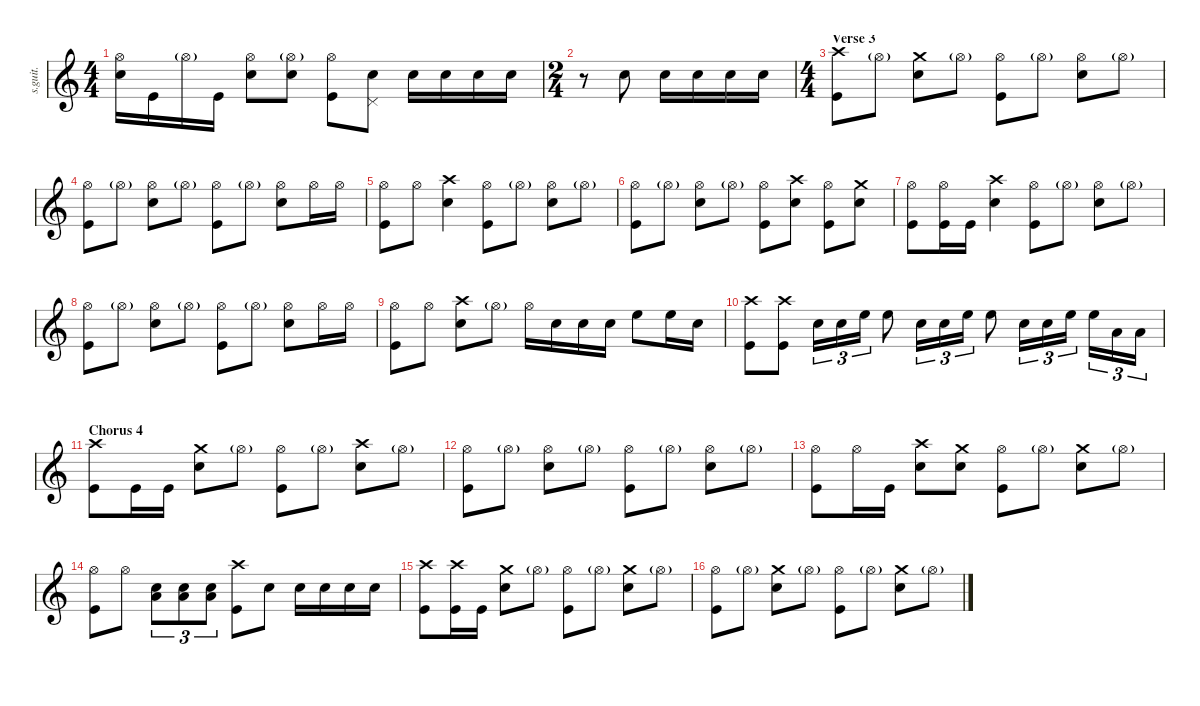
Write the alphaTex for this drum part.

\defaultSystemsLayout 4
\hideDynamics
\bracketExtendMode nobrackets
\track ("Lars Ulrich" "s.guit.") {instrument percussion}
\staff {score}
\articulation defaults
\ts (4 4)
\tempo (89 hide)
\clef g2
\ks c
("Hi-Hat (open)" "Snare (hit) 2").16{lyrics (0 "") lyrics (1 "") lyrics (2 "") lyrics (3 "") lyrics (4 "") dy f} "Kick (hit)".16{lyrics (0 "") lyrics (1 "") lyrics (2 "") lyrics (3 "") lyrics (4 "") dy fff} "Hi-Hat (open)"{g}.16{lyrics (0 "") lyrics (1 "") lyrics (2 "") lyrics (3 "") lyrics (4 "") dy p} "Kick (hit)".16{lyrics (0 "") lyrics (1 "") lyrics (2 "") lyrics (3 "") lyrics (4 "") dy fff} ("Hi-Hat (open)" "Snare (hit) 2").8{lyrics (0 "") lyrics (1 "") lyrics (2 "") lyrics (3 "") lyrics (4 "") dy f} ("Hi-Hat (open)"{g} "Snare (hit) 2").8{lyrics (0 "") lyrics (1 "") lyrics (2 "") lyrics (3 "") lyrics (4 "")} ("Hi-Hat (open)" "Kick (hit)").8{lyrics (0 "") lyrics (1 "") lyrics (2 "") lyrics (3 "") lyrics (4 "")} ("Pedal Hi-Hat (hit)" "Snare (hit) 2").8{lyrics (0 "") lyrics (1 "") lyrics (2 "") lyrics (3 "") lyrics (4 "")} "Snare (hit) 2".16{lyrics (0 "") lyrics (1 "") lyrics (2 "") lyrics (3 "") lyrics (4 "")} "Snare (hit) 2".16{lyrics (0 "") lyrics (1 "") lyrics (2 "") lyrics (3 "") lyrics (4 "")} "Snare (hit) 2".16{lyrics (0 "") lyrics (1 "") lyrics (2 "") lyrics (3 "") lyrics (4 "")} "Snare (hit) 2".16{lyrics (0 "") lyrics (1 "") lyrics (2 "") lyrics (3 "") lyrics (4 "")} |
\ts (2 4)
\beaming (8 2 2 2 2)
\tempo (90 hide)
r.8 "Snare (hit) 2".8{lyrics (0 "") lyrics (1 "") lyrics (2 "") lyrics (3 "") lyrics (4 "")} "Snare (hit) 2".16{lyrics (0 "") lyrics (1 "") lyrics (2 "") lyrics (3 "") lyrics (4 "")} "Snare (hit) 2".16{lyrics (0 "") lyrics (1 "") lyrics (2 "") lyrics (3 "") lyrics (4 "")} "Snare (hit) 2".16{lyrics (0 "") lyrics (1 "") lyrics (2 "") lyrics (3 "") lyrics (4 "")} "Snare (hit) 2".16{lyrics (0 "") lyrics (1 "") lyrics (2 "") lyrics (3 "") lyrics (4 "")} |
\ts (4 4)
\beaming (8 2 2 2 2)
\section ("" "Verse 3")
\tempo (89 hide)
("Crash high (hit)" "Kick (hit)").8{lyrics (0 "") lyrics (1 "") lyrics (2 "") lyrics (3 "") lyrics (4 "")} "Hi-Hat (open)"{g}.8{lyrics (0 "") lyrics (1 "") lyrics (2 "") lyrics (3 "") lyrics (4 "") dy p} ("Crash medium (hit)" "Snare (hit) 2").8{lyrics (0 "") lyrics (1 "") lyrics (2 "") lyrics (3 "") lyrics (4 "") dy f} "Hi-Hat (open)"{g}.8{lyrics (0 "") lyrics (1 "") lyrics (2 "") lyrics (3 "") lyrics (4 "") dy p} ("Hi-Hat (open)" "Kick (hit)").8{lyrics (0 "") lyrics (1 "") lyrics (2 "") lyrics (3 "") lyrics (4 "") dy f} "Hi-Hat (open)"{g}.8{lyrics (0 "") lyrics (1 "") lyrics (2 "") lyrics (3 "") lyrics (4 "") dy p} ("Hi-Hat (open)" "Snare (hit) 2").8{lyrics (0 "") lyrics (1 "") lyrics (2 "") lyrics (3 "") lyrics (4 "") dy f} "Hi-Hat (open)"{g}.8{lyrics (0 "") lyrics (1 "") lyrics (2 "") lyrics (3 "") lyrics (4 "") dy p} |
\tempo (90 hide)
("Hi-Hat (open)" "Kick (hit)").8{lyrics (0 "") lyrics (1 "") lyrics (2 "") lyrics (3 "") lyrics (4 "") dy f} "Hi-Hat (open)"{g}.8{lyrics (0 "") lyrics (1 "") lyrics (2 "") lyrics (3 "") lyrics (4 "") dy p} ("Hi-Hat (open)" "Snare (hit) 2").8{lyrics (0 "") lyrics (1 "") lyrics (2 "") lyrics (3 "") lyrics (4 "") dy f} "Hi-Hat (open)"{g}.8{lyrics (0 "") lyrics (1 "") lyrics (2 "") lyrics (3 "") lyrics (4 "") dy p} ("Hi-Hat (open)" "Kick (hit)").8{lyrics (0 "") lyrics (1 "") lyrics (2 "") lyrics (3 "") lyrics (4 "") dy f} "Hi-Hat (open)"{g}.8{lyrics (0 "") lyrics (1 "") lyrics (2 "") lyrics (3 "") lyrics (4 "") dy p} ("Hi-Hat (open)" "Snare (hit) 2").8{lyrics (0 "") lyrics (1 "") lyrics (2 "") lyrics (3 "") lyrics (4 "") dy f} "Hi-Hat (open)".16{lyrics (0 "") lyrics (1 "") lyrics (2 "") lyrics (3 "") lyrics (4 "")} "Hi-Hat (open)".16{lyrics (0 "") lyrics (1 "") lyrics (2 "") lyrics (3 "") lyrics (4 "")} |
\tempo (89 hide)
("Hi-Hat (open)" "Kick (hit)").8{lyrics (0 "") lyrics (1 "") lyrics (2 "") lyrics (3 "") lyrics (4 "")} "Hi-Hat (open)".8{lyrics (0 "") lyrics (1 "") lyrics (2 "") lyrics (3 "") lyrics (4 "")} ("Crash high (hit)" "Snare (hit) 2").4{lyrics (0 "") lyrics (1 "") lyrics (2 "") lyrics (3 "") lyrics (4 "")} ("Hi-Hat (open)" "Kick (hit)").8{lyrics (0 "") lyrics (1 "") lyrics (2 "") lyrics (3 "") lyrics (4 "")} "Hi-Hat (open)"{g}.8{lyrics (0 "") lyrics (1 "") lyrics (2 "") lyrics (3 "") lyrics (4 "") dy p} ("Hi-Hat (open)" "Snare (hit) 2").8{lyrics (0 "") lyrics (1 "") lyrics (2 "") lyrics (3 "") lyrics (4 "") dy f} "Hi-Hat (open)"{g}.8{lyrics (0 "") lyrics (1 "") lyrics (2 "") lyrics (3 "") lyrics (4 "") dy p} |
("Hi-Hat (open)" "Kick (hit)").8{lyrics (0 "") lyrics (1 "") lyrics (2 "") lyrics (3 "") lyrics (4 "") dy f} "Hi-Hat (open)"{g}.8{lyrics (0 "") lyrics (1 "") lyrics (2 "") lyrics (3 "") lyrics (4 "") dy p} ("Hi-Hat (open)" "Snare (hit) 2").8{lyrics (0 "") lyrics (1 "") lyrics (2 "") lyrics (3 "") lyrics (4 "") dy f} "Hi-Hat (open)"{g}.8{lyrics (0 "") lyrics (1 "") lyrics (2 "") lyrics (3 "") lyrics (4 "") dy p} ("Hi-Hat (open)" "Kick (hit)").8{lyrics (0 "") lyrics (1 "") lyrics (2 "") lyrics (3 "") lyrics (4 "") dy f} ("Crash high (hit)" "Snare (hit) 2").8{lyrics (0 "") lyrics (1 "") lyrics (2 "") lyrics (3 "") lyrics (4 "")} ("Hi-Hat (open)" "Kick (hit)").8{lyrics (0 "") lyrics (1 "") lyrics (2 "") lyrics (3 "") lyrics (4 "")} ("Crash medium (hit)" "Snare (hit) 2").8{lyrics (0 "") lyrics (1 "") lyrics (2 "") lyrics (3 "") lyrics (4 "")} |
\tempo (90 hide)
("Hi-Hat (open)" "Kick (hit)").8{lyrics (0 "") lyrics (1 "") lyrics (2 "") lyrics (3 "") lyrics (4 "")} ("Hi-Hat (open)" "Kick (hit)").16{lyrics (0 "") lyrics (1 "") lyrics (2 "") lyrics (3 "") lyrics (4 "")} "Kick (hit)".16{lyrics (0 "") lyrics (1 "") lyrics (2 "") lyrics (3 "") lyrics (4 "")} ("Crash high (hit)" "Snare (hit) 2").4{lyrics (0 "") lyrics (1 "") lyrics (2 "") lyrics (3 "") lyrics (4 "")} ("Hi-Hat (open)" "Kick (hit)").8{lyrics (0 "") lyrics (1 "") lyrics (2 "") lyrics (3 "") lyrics (4 "")} "Hi-Hat (open)"{g}.8{lyrics (0 "") lyrics (1 "") lyrics (2 "") lyrics (3 "") lyrics (4 "") dy p} ("Hi-Hat (open)" "Snare (hit) 2").8{lyrics (0 "") lyrics (1 "") lyrics (2 "") lyrics (3 "") lyrics (4 "") dy f} "Hi-Hat (open)"{g}.8{lyrics (0 "") lyrics (1 "") lyrics (2 "") lyrics (3 "") lyrics (4 "") dy p} |
\tempo (89 hide)
("Hi-Hat (open)" "Kick (hit)").8{lyrics (0 "") lyrics (1 "") lyrics (2 "") lyrics (3 "") lyrics (4 "") dy f} "Hi-Hat (open)"{g}.8{lyrics (0 "") lyrics (1 "") lyrics (2 "") lyrics (3 "") lyrics (4 "") dy p} ("Hi-Hat (open)" "Snare (hit) 2").8{lyrics (0 "") lyrics (1 "") lyrics (2 "") lyrics (3 "") lyrics (4 "") dy f} "Hi-Hat (open)"{g}.8{lyrics (0 "") lyrics (1 "") lyrics (2 "") lyrics (3 "") lyrics (4 "") dy p} ("Hi-Hat (open)" "Kick (hit)").8{lyrics (0 "") lyrics (1 "") lyrics (2 "") lyrics (3 "") lyrics (4 "") dy f} "Hi-Hat (open)"{g}.8{lyrics (0 "") lyrics (1 "") lyrics (2 "") lyrics (3 "") lyrics (4 "") dy p} ("Hi-Hat (open)" "Snare (hit) 2").8{lyrics (0 "") lyrics (1 "") lyrics (2 "") lyrics (3 "") lyrics (4 "") dy f} "Hi-Hat (open)".16{lyrics (0 "") lyrics (1 "") lyrics (2 "") lyrics (3 "") lyrics (4 "")} "Hi-Hat (open)".16{lyrics (0 "") lyrics (1 "") lyrics (2 "") lyrics (3 "") lyrics (4 "")} |
\tempo (90 hide)
("Hi-Hat (open)" "Kick (hit)").8{lyrics (0 "") lyrics (1 "") lyrics (2 "") lyrics (3 "") lyrics (4 "")} "Hi-Hat (open)".8{lyrics (0 "") lyrics (1 "") lyrics (2 "") lyrics (3 "") lyrics (4 "")} ("Crash high (hit)" "Snare (hit) 2").8{lyrics (0 "") lyrics (1 "") lyrics (2 "") lyrics (3 "") lyrics (4 "")} "Hi-Hat (open)"{g}.8{lyrics (0 "") lyrics (1 "") lyrics (2 "") lyrics (3 "") lyrics (4 "") dy p} "Hi-Hat (open)".16{lyrics (0 "") lyrics (1 "") lyrics (2 "") lyrics (3 "") lyrics (4 "") dy f} "Snare (hit) 2".16{lyrics (0 "") lyrics (1 "") lyrics (2 "") lyrics (3 "") lyrics (4 "")} "Snare (hit) 2".16{lyrics (0 "") lyrics (1 "") lyrics (2 "") lyrics (3 "") lyrics (4 "")} "Snare (hit) 2".16{lyrics (0 "") lyrics (1 "") lyrics (2 "") lyrics (3 "") lyrics (4 "")} "High Floor Tom (hit)".8{lyrics (0 "") lyrics (1 "") lyrics (2 "") lyrics (3 "") lyrics (4 "") dy ff} "High Floor Tom (hit)".16{lyrics (0 "") lyrics (1 "") lyrics (2 "") lyrics (3 "") lyrics (4 "")} "Snare (hit) 2".16{lyrics (0 "") lyrics (1 "") lyrics (2 "") lyrics (3 "") lyrics (4 "") dy f} |
\tempo (87 hide)
("Crash high (hit)" "Kick (hit)").8{lyrics (0 "") lyrics (1 "") lyrics (2 "") lyrics (3 "") lyrics (4 "")} ("Crash high (hit)" "Kick (hit)").8{lyrics (0 "") lyrics (1 "") lyrics (2 "") lyrics (3 "") lyrics (4 "")} "Snare (hit) 2".16{tu (3 2) lyrics (0 "") lyrics (1 "") lyrics (2 "") lyrics (3 "") lyrics (4 "")} "Snare (hit) 2".16{tu (3 2) lyrics (0 "") lyrics (1 "") lyrics (2 "") lyrics (3 "") lyrics (4 "")} "High Floor Tom (hit)".16{tu (3 2) lyrics (0 "") lyrics (1 "") lyrics (2 "") lyrics (3 "") lyrics (4 "") dy ff} "High Floor Tom (hit)".8{lyrics (0 "") lyrics (1 "") lyrics (2 "") lyrics (3 "") lyrics (4 "") dy f} "Snare (hit) 2".16{tu (3 2) lyrics (0 "") lyrics (1 "") lyrics (2 "") lyrics (3 "") lyrics (4 "")} "Snare (hit) 2".16{tu (3 2) lyrics (0 "") lyrics (1 "") lyrics (2 "") lyrics (3 "") lyrics (4 "")} "High Floor Tom (hit)".16{tu (3 2) lyrics (0 "") lyrics (1 "") lyrics (2 "") lyrics (3 "") lyrics (4 "") dy ff} "High Floor Tom (hit)".8{lyrics (0 "") lyrics (1 "") lyrics (2 "") lyrics (3 "") lyrics (4 "") dy f} "Snare (hit) 2".16{tu (3 2) lyrics (0 "") lyrics (1 "") lyrics (2 "") lyrics (3 "") lyrics (4 "")} "Snare (hit) 2".16{tu (3 2) lyrics (0 "") lyrics (1 "") lyrics (2 "") lyrics (3 "") lyrics (4 "")} "High Floor Tom (hit)".16{tu (3 2) lyrics (0 "") lyrics (1 "") lyrics (2 "") lyrics (3 "") lyrics (4 "") dy ff} "High Floor Tom (hit)".16{tu (3 2) lyrics (0 "") lyrics (1 "") lyrics (2 "") lyrics (3 "") lyrics (4 "") dy f} "Low Floor Tom (hit)".16{tu (3 2) lyrics (0 "") lyrics (1 "") lyrics (2 "") lyrics (3 "") lyrics (4 "") dy ff} "Low Floor Tom (hit)".16{tu (3 2) lyrics (0 "") lyrics (1 "") lyrics (2 "") lyrics (3 "") lyrics (4 "")} |
\section ("" "Chorus 4")
\tempo (89 hide)
("Crash high (hit)" "Kick (hit)").8{lyrics (0 "") lyrics (1 "") lyrics (2 "") lyrics (3 "") lyrics (4 "") dy f} "Kick (hit)".16{lyrics (0 "") lyrics (1 "") lyrics (2 "") lyrics (3 "") lyrics (4 "")} "Kick (hit)".16{lyrics (0 "") lyrics (1 "") lyrics (2 "") lyrics (3 "") lyrics (4 "")} ("Crash medium (hit)" "Snare (hit) 2").8{lyrics (0 "") lyrics (1 "") lyrics (2 "") lyrics (3 "") lyrics (4 "")} "Hi-Hat (open)"{g}.8{lyrics (0 "") lyrics (1 "") lyrics (2 "") lyrics (3 "") lyrics (4 "") dy p} ("Hi-Hat (open)" "Kick (hit)").8{lyrics (0 "") lyrics (1 "") lyrics (2 "") lyrics (3 "") lyrics (4 "") dy f} "Hi-Hat (open)"{g}.8{lyrics (0 "") lyrics (1 "") lyrics (2 "") lyrics (3 "") lyrics (4 "") dy p} ("Crash high (hit)" "Snare (hit) 2").8{lyrics (0 "") lyrics (1 "") lyrics (2 "") lyrics (3 "") lyrics (4 "") dy f} "Hi-Hat (open)"{g}.8{lyrics (0 "") lyrics (1 "") lyrics (2 "") lyrics (3 "") lyrics (4 "") dy p} |
("Hi-Hat (open)" "Kick (hit)").8{lyrics (0 "") lyrics (1 "") lyrics (2 "") lyrics (3 "") lyrics (4 "") dy f} "Hi-Hat (open)"{g}.8{lyrics (0 "") lyrics (1 "") lyrics (2 "") lyrics (3 "") lyrics (4 "") dy p} ("Hi-Hat (open)" "Snare (hit) 2").8{lyrics (0 "") lyrics (1 "") lyrics (2 "") lyrics (3 "") lyrics (4 "") dy f} "Hi-Hat (open)"{g}.8{lyrics (0 "") lyrics (1 "") lyrics (2 "") lyrics (3 "") lyrics (4 "") dy p} ("Hi-Hat (open)" "Kick (hit)").8{lyrics (0 "") lyrics (1 "") lyrics (2 "") lyrics (3 "") lyrics (4 "") dy f} "Hi-Hat (open)"{g}.8{lyrics (0 "") lyrics (1 "") lyrics (2 "") lyrics (3 "") lyrics (4 "") dy p} ("Hi-Hat (open)" "Snare (hit) 2").8{lyrics (0 "") lyrics (1 "") lyrics (2 "") lyrics (3 "") lyrics (4 "") dy f} "Hi-Hat (open)"{g}.8{lyrics (0 "") lyrics (1 "") lyrics (2 "") lyrics (3 "") lyrics (4 "") dy p} |
("Hi-Hat (open)" "Kick (hit)").8{lyrics (0 "") lyrics (1 "") lyrics (2 "") lyrics (3 "") lyrics (4 "") dy f} "Hi-Hat (open)".16{lyrics (0 "") lyrics (1 "") lyrics (2 "") lyrics (3 "") lyrics (4 "")} "Kick (hit)".16{lyrics (0 "") lyrics (1 "") lyrics (2 "") lyrics (3 "") lyrics (4 "") dy fff} ("Crash high (hit)" "Snare (hit) 2").8{lyrics (0 "") lyrics (1 "") lyrics (2 "") lyrics (3 "") lyrics (4 "") dy f} ("Crash medium (hit)" "Snare (hit) 2").8{lyrics (0 "") lyrics (1 "") lyrics (2 "") lyrics (3 "") lyrics (4 "")} ("Hi-Hat (open)" "Kick (hit)").8{lyrics (0 "") lyrics (1 "") lyrics (2 "") lyrics (3 "") lyrics (4 "")} "Hi-Hat (open)"{g}.8{lyrics (0 "") lyrics (1 "") lyrics (2 "") lyrics (3 "") lyrics (4 "") dy p} ("Crash medium (hit)" "Snare (hit) 2").8{lyrics (0 "") lyrics (1 "") lyrics (2 "") lyrics (3 "") lyrics (4 "") dy f} "Hi-Hat (open)"{g}.8{lyrics (0 "") lyrics (1 "") lyrics (2 "") lyrics (3 "") lyrics (4 "") dy p} |
\tempo (90 hide)
("Hi-Hat (open)" "Kick (hit)").8{lyrics (0 "") lyrics (1 "") lyrics (2 "") lyrics (3 "") lyrics (4 "") dy f} "Hi-Hat (open)".8{lyrics (0 "") lyrics (1 "") lyrics (2 "") lyrics (3 "") lyrics (4 "")} ("Low Floor Tom (hit)" "Snare (hit) 2").8{tu (3 2) lyrics (0 "") lyrics (1 "") lyrics (2 "") lyrics (3 "") lyrics (4 "")} ("Low Floor Tom (hit)" "Snare (hit) 2").8{tu (3 2) lyrics (0 "") lyrics (1 "") lyrics (2 "") lyrics (3 "") lyrics (4 "")} ("Low Floor Tom (hit)" "Snare (hit) 2").8{tu (3 2) lyrics (0 "") lyrics (1 "") lyrics (2 "") lyrics (3 "") lyrics (4 "")} ("Kick (hit)" "Crash high (hit)").8{lyrics (0 "") lyrics (1 "") lyrics (2 "") lyrics (3 "") lyrics (4 "")} "Snare (hit) 2".8{lyrics (0 "") lyrics (1 "") lyrics (2 "") lyrics (3 "") lyrics (4 "")} "Snare (hit) 2".16{lyrics (0 "") lyrics (1 "") lyrics (2 "") lyrics (3 "") lyrics (4 "")} "Snare (hit) 2".16{lyrics (0 "") lyrics (1 "") lyrics (2 "") lyrics (3 "") lyrics (4 "")} "Snare (hit) 2".16{lyrics (0 "") lyrics (1 "") lyrics (2 "") lyrics (3 "") lyrics (4 "")} "Snare (hit) 2".16{lyrics (0 "") lyrics (1 "") lyrics (2 "") lyrics (3 "") lyrics (4 "")} |
("Crash high (hit)" "Kick (hit)").8{lyrics (0 "") lyrics (1 "") lyrics (2 "") lyrics (3 "") lyrics (4 "")} ("Crash high (hit)" "Kick (hit)").16{lyrics (0 "") lyrics (1 "") lyrics (2 "") lyrics (3 "") lyrics (4 "")} "Kick (hit)".16{lyrics (0 "") lyrics (1 "") lyrics (2 "") lyrics (3 "") lyrics (4 "")} ("Crash medium (hit)" "Snare (hit) 2").8{lyrics (0 "") lyrics (1 "") lyrics (2 "") lyrics (3 "") lyrics (4 "")} "Hi-Hat (open)"{g}.8{lyrics (0 "") lyrics (1 "") lyrics (2 "") lyrics (3 "") lyrics (4 "") dy p} ("Hi-Hat (open)" "Kick (hit)").8{lyrics (0 "") lyrics (1 "") lyrics (2 "") lyrics (3 "") lyrics (4 "") dy f} "Hi-Hat (open)"{g}.8{lyrics (0 "") lyrics (1 "") lyrics (2 "") lyrics (3 "") lyrics (4 "") dy p} ("Crash medium (hit)" "Snare (hit) 2").8{lyrics (0 "") lyrics (1 "") lyrics (2 "") lyrics (3 "") lyrics (4 "") dy f} "Hi-Hat (open)"{g}.8{lyrics (0 "") lyrics (1 "") lyrics (2 "") lyrics (3 "") lyrics (4 "") dy p} |
\tempo (89 hide)
("Hi-Hat (open)" "Kick (hit)").8{lyrics (0 "") lyrics (1 "") lyrics (2 "") lyrics (3 "") lyrics (4 "") dy f} "Hi-Hat (open)"{g}.8{lyrics (0 "") lyrics (1 "") lyrics (2 "") lyrics (3 "") lyrics (4 "") dy p} ("Crash medium (hit)" "Snare (hit) 2").8{lyrics (0 "") lyrics (1 "") lyrics (2 "") lyrics (3 "") lyrics (4 "") dy f} "Hi-Hat (open)"{g}.8{lyrics (0 "") lyrics (1 "") lyrics (2 "") lyrics (3 "") lyrics (4 "") dy p} ("Hi-Hat (open)" "Kick (hit)").8{lyrics (0 "") lyrics (1 "") lyrics (2 "") lyrics (3 "") lyrics (4 "") dy f} "Hi-Hat (open)"{g}.8{lyrics (0 "") lyrics (1 "") lyrics (2 "") lyrics (3 "") lyrics (4 "") dy p} ("Crash medium (hit)" "Snare (hit) 2").8{lyrics (0 "") lyrics (1 "") lyrics (2 "") lyrics (3 "") lyrics (4 "") dy f} "Hi-Hat (open)"{g}.8{lyrics (0 "") lyrics (1 "") lyrics (2 "") lyrics (3 "") lyrics (4 "") dy p}
